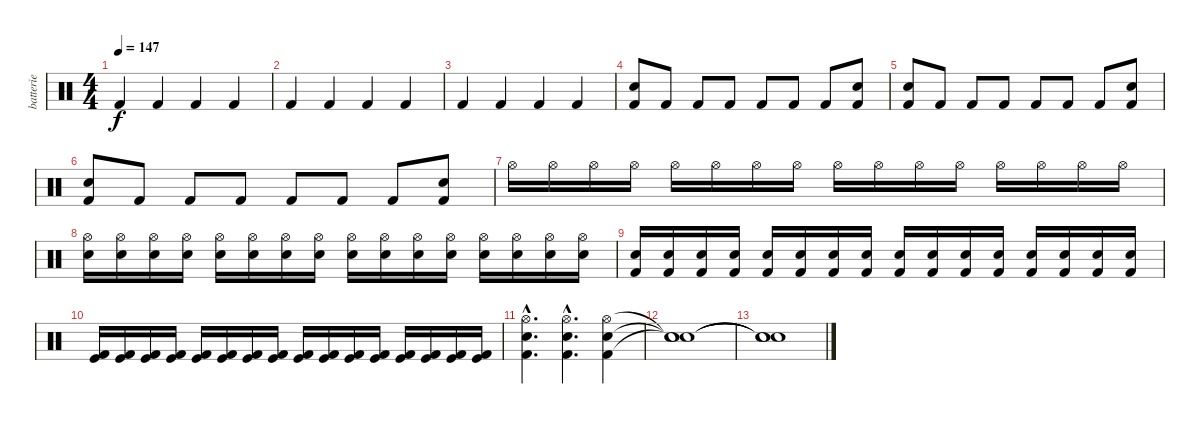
\track ("batterie" "batterie") {instrument percussion}
\staff {score}
\articulation defaults
\ts (4 4)
\tempo 147
\clef neutral
\ks c "Kick (hit) 2".4{dy f} "Kick (hit) 2".4 "Kick (hit) 2".4 "Kick (hit) 2".4
|
"Kick (hit) 2".4 "Kick (hit) 2".4 "Kick (hit) 2".4 "Kick (hit) 2".4 |
"Kick (hit) 2".4 "Kick (hit) 2".4 "Kick (hit) 2".4 "Kick (hit) 2".4 |
("Snare (hit) 2" "Kick (hit) 2").8 "Kick (hit) 2".8 "Kick (hit) 2".8 "Kick (hit) 2".8 "Kick (hit) 2".8 "Kick (hit) 2".8 "Kick (hit) 2".8 ("Snare (hit) 2" "Kick (hit) 2").8 |
("Snare (hit) 2" "Kick (hit) 2").8 "Kick (hit) 2".8 "Kick (hit) 2".8 "Kick (hit) 2".8 "Kick (hit) 2".8 "Kick (hit) 2".8 "Kick (hit) 2".8 ("Snare (hit) 2" "Kick (hit) 2").8 |
("Snare (hit) 2" "Kick (hit) 2").8 "Kick (hit) 2".8 "Kick (hit) 2".8 "Kick (hit) 2".8 "Kick (hit) 2".8 "Kick (hit) 2".8 "Kick (hit) 2".8 ("Snare (hit) 2" "Kick (hit) 2").8 |
"Hi-Hat (open)".16 "Hi-Hat (open)".16 "Hi-Hat (open)".16 "Hi-Hat (open)".16 "Hi-Hat (open)".16 "Hi-Hat (open)".16 "Hi-Hat (open)".16 "Hi-Hat (open)".16 "Hi-Hat (open)".16 "Hi-Hat (open)".16 "Hi-Hat (open)".16 "Hi-Hat (open)".16 "Hi-Hat (open)".16 "Hi-Hat (open)".16 "Hi-Hat (open)".16 "Hi-Hat (open)".16 |
("Snare (hit) 2" "Hi-Hat (open)").16 ("Snare (hit) 2" "Hi-Hat (open)").16 ("Snare (hit) 2" "Hi-Hat (open)").16 ("Snare (hit) 2" "Hi-Hat (open)").16 ("Snare (hit) 2" "Hi-Hat (open)").16 ("Snare (hit) 2" "Hi-Hat (open)").16 ("Snare (hit) 2" "Hi-Hat (open)").16 ("Snare (hit) 2" "Hi-Hat (open)").16 ("Snare (hit) 2" "Hi-Hat (open)").16 ("Snare (hit) 2" "Hi-Hat (open)").16 ("Snare (hit) 2" "Hi-Hat (open)").16 ("Snare (hit) 2" "Hi-Hat (open)").16 ("Snare (hit) 2" "Hi-Hat (open)").16 ("Snare (hit) 2" "Hi-Hat (open)").16 ("Snare (hit) 2" "Hi-Hat (open)").16 ("Snare (hit) 2" "Hi-Hat (open)").16 |
("Snare (hit) 2" "Kick (hit) 2").16 ("Snare (hit) 2" "Kick (hit) 2").16 ("Snare (hit) 2" "Kick (hit) 2").16 ("Snare (hit) 2" "Kick (hit) 2").16 ("Snare (hit) 2" "Kick (hit) 2").16 ("Snare (hit) 2" "Kick (hit) 2").16 ("Snare (hit) 2" "Kick (hit) 2").16 ("Snare (hit) 2" "Kick (hit) 2").16 ("Snare (hit) 2" "Kick (hit) 2").16 ("Snare (hit) 2" "Kick (hit) 2").16 ("Snare (hit) 2" "Kick (hit) 2").16 ("Snare (hit) 2" "Kick (hit) 2").16 ("Snare (hit) 2" "Kick (hit) 2").16 ("Snare (hit) 2" "Kick (hit) 2").16 ("Snare (hit) 2" "Kick (hit) 2").16 ("Snare (hit) 2" "Kick (hit) 2").16 |
("Kick (hit)" "Kick (hit) 2").16 ("Kick (hit)" "Kick (hit) 2").16 ("Kick (hit)" "Kick (hit) 2").16 ("Kick (hit)" "Kick (hit) 2").16 ("Kick (hit)" "Kick (hit) 2").16 ("Kick (hit)" "Kick (hit) 2").16 ("Kick (hit)" "Kick (hit) 2").16 ("Kick (hit)" "Kick (hit) 2").16 ("Kick (hit)" "Kick (hit) 2").16 ("Kick (hit)" "Kick (hit) 2").16 ("Kick (hit)" "Kick (hit) 2").16 ("Kick (hit)" "Kick (hit) 2").16 ("Kick (hit)" "Kick (hit) 2").16 ("Kick (hit)" "Kick (hit) 2").16 ("Kick (hit)" "Kick (hit) 2").16 ("Kick (hit)" "Kick (hit) 2").16 |
("Snare (hit) 2"{hac} "Hi-Hat (open)"{hac} "Kick (hit) 2"{hac}).4{d} ("Snare (hit) 2"{hac} "Hi-Hat (open)"{hac} "Kick (hit) 2"{hac}).4{d} ("Snare (hit) 2" "Hi-Hat (open)" "Kick (hit) 2").4 |
("Snare (hit)"{t} "Snare (hit)"{t} "Snare (hit)"{t}).1{volume 8} |
("Snare (hit)"{t} "Snare (hit)"{t} "Snare (hit)"{t}).1{volume 0}
